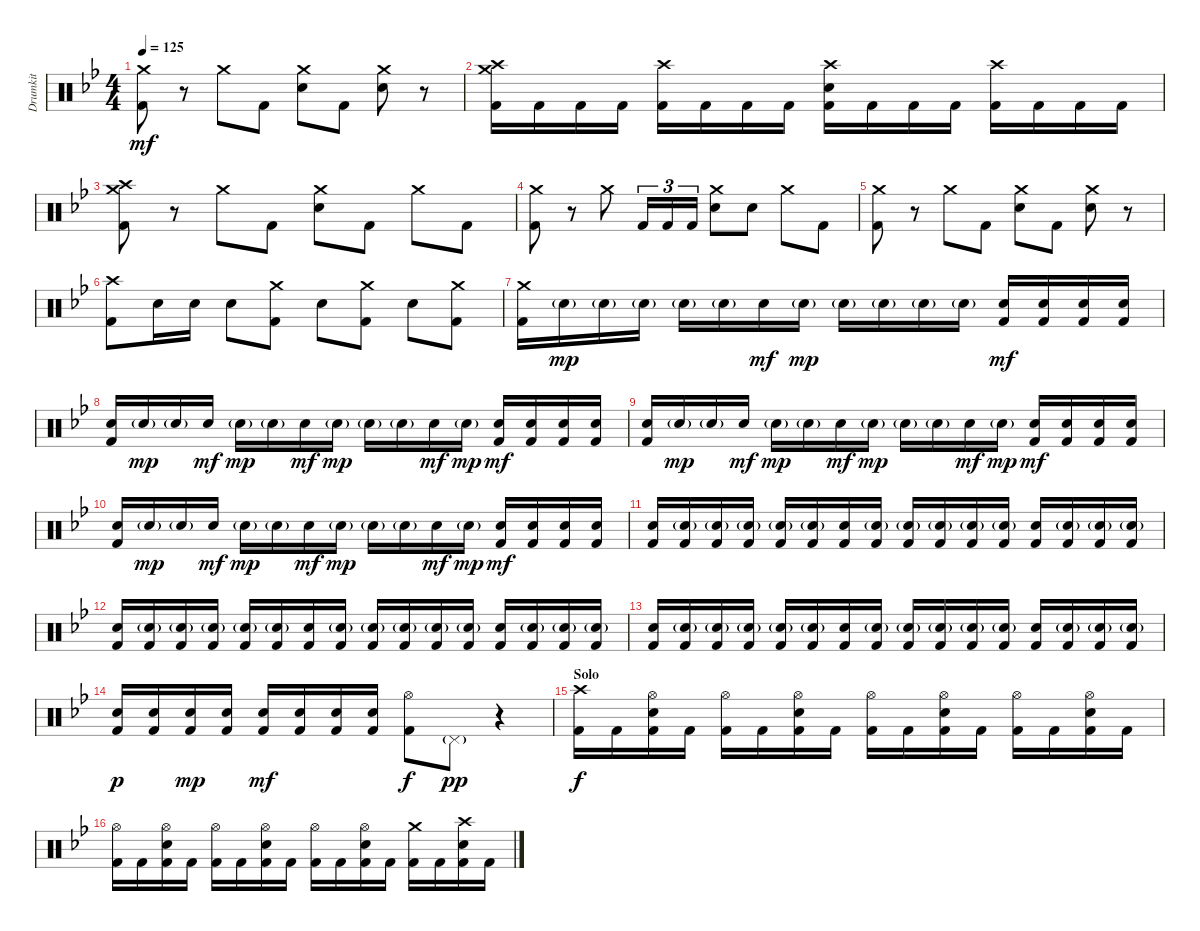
\track ("Drumkit" "Drumkit") {instrument percussion}
\staff {score}
\articulation defaults
\ts (4 4)
\tempo 125
\clef neutral
\ks bb
("Crash medium (hit)" "Kick (hit) 2").8{dy mf} r.8 "Crash medium (hit)".8 "Kick (hit) 2".8 ("Crash medium (hit)" "Snare (hit) 2").8 "Kick (hit) 2".8 ("Crash medium (hit)" "Snare (hit) 2").8 r.8 |
("Crash high (hit)" "Crash medium (hit)" "Kick (hit) 2").16 "Kick (hit) 2".16 "Kick (hit) 2".16 "Kick (hit) 2".16 ("Crash high (hit)" "Kick (hit) 2").16 "Kick (hit) 2".16 "Kick (hit) 2".16 "Kick (hit) 2".16 ("Crash high (hit)" "Snare (hit) 2" "Kick (hit) 2").16 "Kick (hit) 2".16 "Kick (hit) 2".16 "Kick (hit) 2".16 ("Crash high (hit)" "Kick (hit) 2").16 "Kick (hit) 2".16 "Kick (hit) 2".16 "Kick (hit) 2".16 |
("Crash high (hit)" "Crash medium (hit)" "Kick (hit) 2").8 r.8 "Crash medium (hit)".8 "Kick (hit) 2".8 ("Crash medium (hit)" "Snare (hit) 2").8 "Kick (hit) 2".8 "Crash medium (hit)".8 "Kick (hit) 2".8 |
("Crash medium (hit)" "Kick (hit) 2").8 r.8 "Crash medium (hit)".8 "Kick (hit) 2".16{tu (3 2)} "Kick (hit) 2".16{tu (3 2)} "Kick (hit) 2".16{tu (3 2)} ("Crash medium (hit)" "Snare (hit) 2").8 "Snare (hit) 2".8 "Crash medium (hit)".8 "Kick (hit) 2".8 |
("Crash medium (hit)" "Kick (hit) 2").8 r.8 "Crash medium (hit)".8 "Kick (hit) 2".8 ("Crash medium (hit)" "Snare (hit) 2").8 "Kick (hit) 2".8 ("Crash medium (hit)" "Snare (hit) 2").8 r.8 |
("Crash high (hit)" "Kick (hit) 2").8 "Snare (hit) 2".16 "Snare (hit) 2".16 "Snare (hit) 2".8 ("Crash medium (hit)" "Kick (hit) 2").8 "Snare (hit) 2".8 ("Crash medium (hit)" "Kick (hit) 2").8 "Snare (hit) 2".8 ("Crash medium (hit)" "Kick (hit) 2").8 |
("Crash medium (hit)" "Kick (hit) 2").16 "Snare (hit) 2"{g}.16{dy mp} "Snare (hit) 2"{g}.16 "Snare (hit) 2"{g}.16 "Snare (hit) 2"{g}.16 "Snare (hit) 2"{g}.16 "Snare (hit) 2".16{dy mf} "Snare (hit) 2"{g}.16{dy mp} "Snare (hit) 2"{g}.16 "Snare (hit) 2"{g}.16 "Snare (hit) 2"{g}.16 "Snare (hit) 2"{g}.16 ("Snare (hit) 2" "Kick (hit) 2").16{dy mf} ("Snare (hit) 2" "Kick (hit) 2").16 ("Snare (hit) 2" "Kick (hit) 2").16 ("Snare (hit) 2" "Kick (hit) 2").16 |
("Snare (hit) 2" "Kick (hit) 2").16 "Snare (hit) 2"{g}.16{dy mp} "Snare (hit) 2"{g}.16 "Snare (hit) 2".16{dy mf} "Snare (hit) 2"{g}.16{dy mp} "Snare (hit) 2"{g}.16 "Snare (hit) 2".16{dy mf} "Snare (hit) 2"{g}.16{dy mp} "Snare (hit) 2"{g}.16 "Snare (hit) 2"{g}.16 "Snare (hit) 2".16{dy mf} "Snare (hit) 2"{g}.16{dy mp} ("Snare (hit) 2" "Kick (hit) 2").16{dy mf} ("Snare (hit) 2" "Kick (hit) 2").16 ("Snare (hit) 2" "Kick (hit) 2").16 ("Snare (hit) 2" "Kick (hit) 2").16 |
("Snare (hit) 2" "Kick (hit) 2").16 "Snare (hit) 2"{g}.16{dy mp} "Snare (hit) 2"{g}.16 "Snare (hit) 2".16{dy mf} "Snare (hit) 2"{g}.16{dy mp} "Snare (hit) 2"{g}.16 "Snare (hit) 2".16{dy mf} "Snare (hit) 2"{g}.16{dy mp} "Snare (hit) 2"{g}.16 "Snare (hit) 2"{g}.16 "Snare (hit) 2".16{dy mf} "Snare (hit) 2"{g}.16{dy mp} ("Snare (hit) 2" "Kick (hit) 2").16{dy mf} ("Snare (hit) 2" "Kick (hit) 2").16 ("Snare (hit) 2" "Kick (hit) 2").16 ("Snare (hit) 2" "Kick (hit) 2").16 |
("Snare (hit) 2" "Kick (hit) 2").16 "Snare (hit) 2"{g}.16{dy mp} "Snare (hit) 2"{g}.16 "Snare (hit) 2".16{dy mf} "Snare (hit) 2"{g}.16{dy mp} "Snare (hit) 2"{g}.16 "Snare (hit) 2".16{dy mf} "Snare (hit) 2"{g}.16{dy mp} "Snare (hit) 2"{g}.16 "Snare (hit) 2"{g}.16 "Snare (hit) 2".16{dy mf} "Snare (hit) 2"{g}.16{dy mp} ("Snare (hit) 2" "Kick (hit) 2").16{dy mf} ("Snare (hit) 2" "Kick (hit) 2").16 ("Snare (hit) 2" "Kick (hit) 2").16 ("Snare (hit) 2" "Kick (hit) 2").16 |
("Snare (hit) 2" "Kick (hit) 2").16 ("Snare (hit) 2"{g} "Kick (hit) 2").16 ("Snare (hit) 2"{g} "Kick (hit) 2").16 ("Snare (hit) 2"{g} "Kick (hit) 2").16 ("Snare (hit) 2"{g} "Kick (hit) 2").16 ("Snare (hit) 2"{g} "Kick (hit) 2").16 ("Snare (hit) 2" "Kick (hit) 2").16 ("Snare (hit) 2"{g} "Kick (hit) 2").16 ("Snare (hit) 2"{g} "Kick (hit) 2").16 ("Snare (hit) 2"{g} "Kick (hit) 2").16 ("Snare (hit) 2"{g} "Kick (hit) 2").16 ("Snare (hit) 2"{g} "Kick (hit) 2").16 ("Snare (hit) 2" "Kick (hit) 2").16 ("Snare (hit) 2"{g} "Kick (hit) 2").16 ("Snare (hit) 2"{g} "Kick (hit) 2").16 ("Snare (hit) 2"{g} "Kick (hit) 2").16 |
("Snare (hit) 2" "Kick (hit) 2").16 ("Snare (hit) 2"{g} "Kick (hit) 2").16 ("Snare (hit) 2"{g} "Kick (hit) 2").16 ("Snare (hit) 2"{g} "Kick (hit) 2").16 ("Snare (hit) 2"{g} "Kick (hit) 2").16 ("Snare (hit) 2"{g} "Kick (hit) 2").16 ("Snare (hit) 2" "Kick (hit) 2").16 ("Snare (hit) 2"{g} "Kick (hit) 2").16 ("Snare (hit) 2"{g} "Kick (hit) 2").16 ("Snare (hit) 2"{g} "Kick (hit) 2").16 ("Snare (hit) 2"{g} "Kick (hit) 2").16 ("Snare (hit) 2"{g} "Kick (hit) 2").16 ("Snare (hit) 2" "Kick (hit) 2").16 ("Snare (hit) 2"{g} "Kick (hit) 2").16 ("Snare (hit) 2"{g} "Kick (hit) 2").16 ("Snare (hit) 2"{g} "Kick (hit) 2").16 |
("Snare (hit) 2" "Kick (hit) 2").16 ("Snare (hit) 2"{g} "Kick (hit) 2").16 ("Snare (hit) 2"{g} "Kick (hit) 2").16 ("Snare (hit) 2"{g} "Kick (hit) 2").16 ("Snare (hit) 2"{g} "Kick (hit) 2").16 ("Snare (hit) 2"{g} "Kick (hit) 2").16 ("Snare (hit) 2" "Kick (hit) 2").16 ("Snare (hit) 2"{g} "Kick (hit) 2").16 ("Snare (hit) 2"{g} "Kick (hit) 2").16 ("Snare (hit) 2"{g} "Kick (hit) 2").16 ("Snare (hit) 2"{g} "Kick (hit) 2").16 ("Snare (hit) 2"{g} "Kick (hit) 2").16 ("Snare (hit) 2" "Kick (hit) 2").16 ("Snare (hit) 2"{g} "Kick (hit) 2").16 ("Snare (hit) 2"{g} "Kick (hit) 2").16 ("Snare (hit) 2"{g} "Kick (hit) 2").16 |
("Snare (hit) 2" "Kick (hit) 2").16{dy p} ("Snare (hit) 2" "Kick (hit) 2").16 ("Snare (hit) 2" "Kick (hit) 2").16{dy mp} ("Snare (hit) 2" "Kick (hit) 2").16 ("Snare (hit) 2" "Kick (hit) 2").16{dy mf} ("Snare (hit) 2" "Kick (hit) 2").16 ("Snare (hit) 2" "Kick (hit) 2").16 ("Snare (hit) 2" "Kick (hit) 2").16 ("Hi-Hat (open)" "Kick (hit) 2").8{dy f} "Pedal Hi-Hat (hit)"{g}.8{dy pp} r.4 |
\section ("" "Solo")
("Crash high (hit)" "Kick (hit) 2").16{dy f} "Kick (hit) 2".16 ("Hi-Hat (open)" "Snare (hit) 2" "Kick (hit) 2").16 "Kick (hit) 2".16 ("Hi-Hat (open)" "Kick (hit) 2").16 "Kick (hit) 2".16 ("Hi-Hat (open)" "Snare (hit) 2" "Kick (hit) 2").16 "Kick (hit) 2".16 ("Hi-Hat (open)" "Kick (hit) 2").16 "Kick (hit) 2".16 ("Hi-Hat (open)" "Snare (hit) 2" "Kick (hit) 2").16 "Kick (hit) 2".16 ("Hi-Hat (open)" "Kick (hit) 2").16 "Kick (hit) 2".16 ("Hi-Hat (open)" "Snare (hit) 2" "Kick (hit) 2").16 "Kick (hit) 2".16 |
("Hi-Hat (open)" "Kick (hit) 2").16 "Kick (hit) 2".16 ("Hi-Hat (open)" "Snare (hit) 2" "Kick (hit) 2").16 "Kick (hit) 2".16 ("Hi-Hat (open)" "Kick (hit) 2").16 "Kick (hit) 2".16 ("Hi-Hat (open)" "Snare (hit) 2" "Kick (hit) 2").16 "Kick (hit) 2".16 ("Hi-Hat (open)" "Kick (hit) 2").16 "Kick (hit) 2".16 ("Hi-Hat (open)" "Snare (hit) 2" "Kick (hit) 2").16 "Kick (hit) 2".16 ("Crash medium (hit)" "Kick (hit) 2").16 "Kick (hit) 2".16 ("Crash high (hit)" "Snare (hit) 2" "Kick (hit) 2").16 "Kick (hit) 2".16
